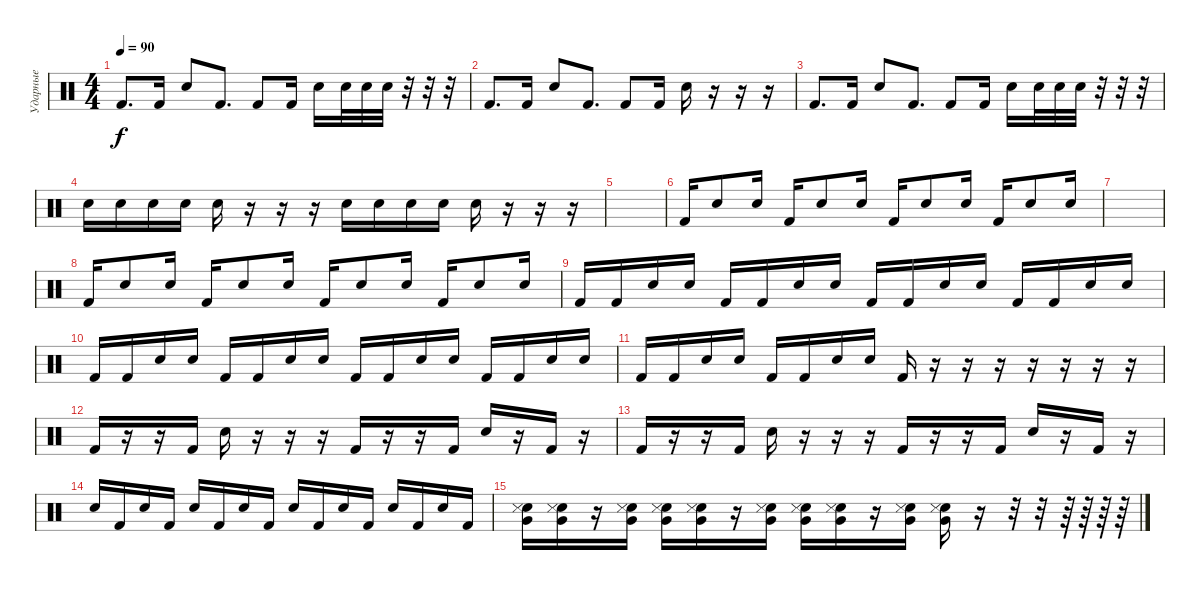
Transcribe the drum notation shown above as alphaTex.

\track ("Ударные" "Ударные") {instrument percussion}
\staff {score}
\articulation defaults
\ts (4 4)
\tempo 90
\clef neutral
\ks c "Kick (hit) 2".8{d dy f} "Kick (hit) 2".16 "Electric Snare (hit)".8 "Kick (hit) 2".8{d} "Kick (hit) 2".8 "Kick (hit) 2".16 "Electric Snare (hit)".16 "Electric Snare (hit)".32 "Electric Snare (hit)".32 "Electric Snare (hit)".32
r.32 r.32 r.32 |
"Kick (hit) 2".8{d} "Kick (hit) 2".16 "Electric Snare (hit)".8 "Kick (hit) 2".8{d} "Kick (hit) 2".8 "Kick (hit) 2".16 "Electric Snare (hit)".16 r.16 r.16 r.16 |
"Kick (hit) 2".8{d} "Kick (hit) 2".16 "Electric Snare (hit)".8 "Kick (hit) 2".8{d} "Kick (hit) 2".8 "Kick (hit) 2".16 "Electric Snare (hit)".16 "Electric Snare (hit)".32 "Electric Snare (hit)".32 "Electric Snare (hit)".32 r.32 r.32 r.32 |
"Electric Snare (hit)".16 "Electric Snare (hit)".16 "Electric Snare (hit)".16 "Electric Snare (hit)".16 "Electric Snare (hit)".16 r.16 r.16 r.16 "Electric Snare (hit)".16 "Electric Snare (hit)".16 "Electric Snare (hit)".16 "Electric Snare (hit)".16 "Electric Snare (hit)".16 r.16 r.16 r.16 |
|
"Kick (hit) 2".16 "Electric Snare (hit)".8 "Electric Snare (hit)".16 "Kick (hit) 2".16 "Electric Snare (hit)".8 "Electric Snare (hit)".16 "Kick (hit) 2".16 "Electric Snare (hit)".8 "Electric Snare (hit)".16 "Kick (hit) 2".16 "Electric Snare (hit)".8 "Electric Snare (hit)".16 |
|
"Kick (hit) 2".16 "Electric Snare (hit)".8 "Electric Snare (hit)".16 "Kick (hit) 2".16 "Electric Snare (hit)".8 "Electric Snare (hit)".16 "Kick (hit) 2".16 "Electric Snare (hit)".8 "Electric Snare (hit)".16 "Kick (hit) 2".16 "Electric Snare (hit)".8 "Electric Snare (hit)".16 |
"Kick (hit) 2".16 "Kick (hit) 2".16 "Electric Snare (hit)".16 "Electric Snare (hit)".16 "Kick (hit) 2".16 "Kick (hit) 2".16 "Electric Snare (hit)".16 "Electric Snare (hit)".16 "Kick (hit) 2".16 "Kick (hit) 2".16 "Electric Snare (hit)".16 "Electric Snare (hit)".16 "Kick (hit) 2".16 "Kick (hit) 2".16 "Electric Snare (hit)".16 "Electric Snare (hit)".16 |
"Kick (hit) 2".16 "Kick (hit) 2".16 "Electric Snare (hit)".16 "Electric Snare (hit)".16 "Kick (hit) 2".16 "Kick (hit) 2".16 "Electric Snare (hit)".16 "Electric Snare (hit)".16 "Kick (hit) 2".16 "Kick (hit) 2".16 "Electric Snare (hit)".16 "Electric Snare (hit)".16 "Kick (hit) 2".16 "Kick (hit) 2".16 "Electric Snare (hit)".16 "Electric Snare (hit)".16 |
"Kick (hit) 2".16 "Kick (hit) 2".16 "Electric Snare (hit)".16 "Electric Snare (hit)".16 "Kick (hit) 2".16 "Kick (hit) 2".16 "Electric Snare (hit)".16 "Electric Snare (hit)".16 "Kick (hit) 2".16 r.16 r.16 r.16 r.16 r.16 r.16 r.16 |
"Kick (hit) 2".16 r.16 r.16 "Kick (hit) 2".16 "Electric Snare (hit)".16 r.16 r.16 r.16 "Kick (hit) 2".16 r.16 r.16 "Kick (hit) 2".16 "Electric Snare (hit)".16 r.16 "Kick (hit) 2".16 r.16 |
"Kick (hit) 2".16 r.16 r.16 "Kick (hit) 2".16 "Electric Snare (hit)".16 r.16 r.16 r.16 "Kick (hit) 2".16 r.16 r.16 "Kick (hit) 2".16 "Electric Snare (hit)".16 r.16 "Kick (hit) 2".16 r.16 |
"Electric Snare (hit)".16 "Kick (hit) 2".16 "Electric Snare (hit)".16 "Kick (hit) 2".16 "Electric Snare (hit)".16 "Kick (hit) 2".16 "Electric Snare (hit)".16 "Kick (hit) 2".16 "Electric Snare (hit)".16 "Kick (hit) 2".16 "Electric Snare (hit)".16 "Kick (hit) 2".16 "Electric Snare (hit)".16 "Kick (hit) 2".16 "Electric Snare (hit)".16 "Kick (hit) 2".16 |
("Very Low Tom (hit)" "Electric Snare (hit)" "Snare (side stick) 3").16 ("Very Low Tom (hit)" "Electric Snare (hit)" "Snare (side stick) 3").16 r.16 ("Very Low Tom (hit)" "Electric Snare (hit)" "Snare (side stick) 3").16 ("Very Low Tom (hit)" "Electric Snare (hit)" "Snare (side stick) 3").16 ("Very Low Tom (hit)" "Electric Snare (hit)" "Snare (side stick) 3").16 r.16 ("Very Low Tom (hit)" "Electric Snare (hit)" "Snare (side stick) 3").16 ("Very Low Tom (hit)" "Electric Snare (hit)" "Snare (side stick) 3").16 ("Very Low Tom (hit)" "Electric Snare (hit)" "Snare (side stick) 3").16 r.16 ("Very Low Tom (hit)" "Electric Snare (hit)" "Snare (side stick) 3").16 ("Very Low Tom (hit)" "Electric Snare (hit)" "Snare (side stick) 3").16 r.16 r.32 r.32 r.64 r.64 r.64 r.64
